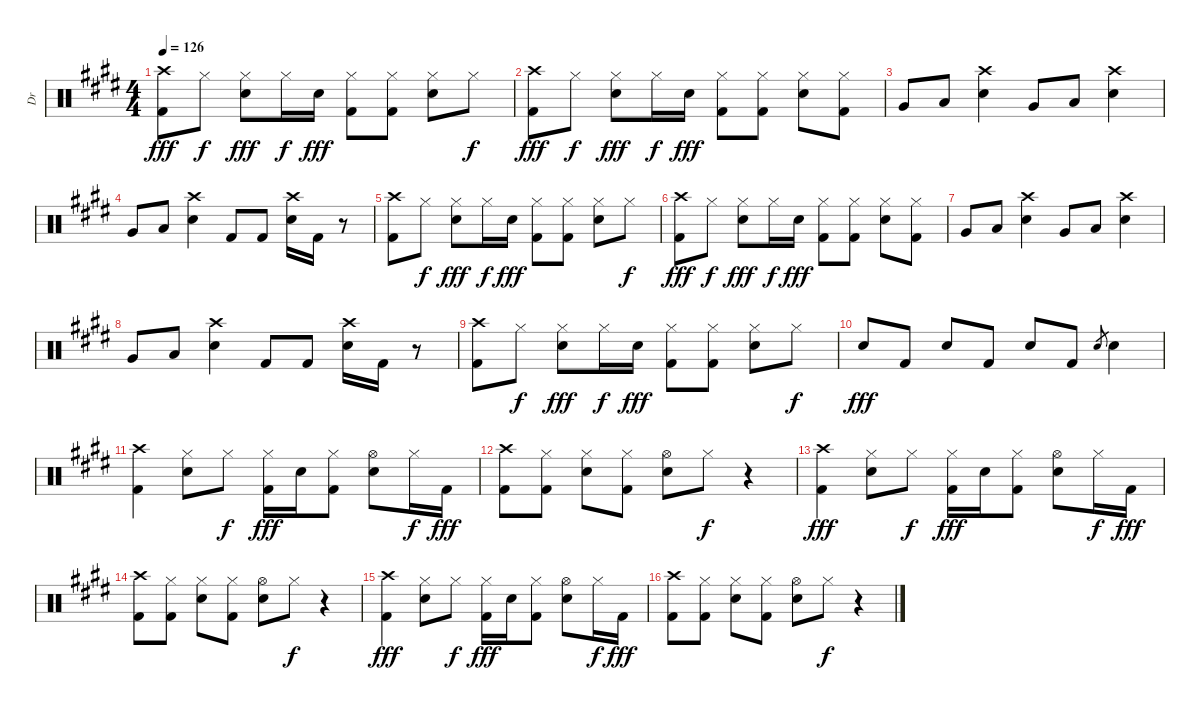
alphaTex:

\track ("Dr" "Dr") {instrument percussion}
\staff {score}
\articulation defaults
\ts (4 4)
\tempo 126
\clef neutral
\ks e
("Crash high (hit)" "Kick (hit) 2").8{dy fff} "Hi-Hat (closed)".8{dy f} ("Hi-Hat (closed)" "Electric Snare (hit)").8{dy fff} "Hi-Hat (closed)".16{dy f} "Electric Snare (hit)".16{dy fff} ("Hi-Hat (closed)" "Kick (hit) 2").8 ("Hi-Hat (closed)" "Kick (hit) 2").8 ("Hi-Hat (closed)" "Electric Snare (hit)").8 "Hi-Hat (closed)".8{dy f} |
("Crash high (hit)" "Kick (hit) 2").8{dy fff} "Hi-Hat (closed)".8{dy f} ("Hi-Hat (closed)" "Electric Snare (hit)").8{dy fff} "Hi-Hat (closed)".16{dy f} "Electric Snare (hit)".16{dy fff} ("Hi-Hat (closed)" "Kick (hit) 2").8 ("Hi-Hat (closed)" "Kick (hit) 2").8 ("Hi-Hat (closed)" "Electric Snare (hit)").8 ("Hi-Hat (closed)" "Kick (hit) 2").8 |
"Very Low Tom (hit)".8 "Low Floor Tom (hit)".8 ("Crash high (hit)" "Electric Snare (hit)").4 "Very Low Tom (hit)".8 "Low Floor Tom (hit)".8 ("Crash high (hit)" "Electric Snare (hit)").4 |
"Very Low Tom (hit)".8 "Low Floor Tom (hit)".8 ("Crash high (hit)" "Electric Snare (hit)").4 "Kick (hit) 2".8 "Kick (hit) 2".8 ("Crash high (hit)" "Electric Snare (hit)").16 "Kick (hit) 2".16 r.8 |
("Crash high (hit)" "Kick (hit) 2").8 "Hi-Hat (closed)".8{dy f} ("Hi-Hat (closed)" "Electric Snare (hit)").8{dy fff} "Hi-Hat (closed)".16{dy f} "Electric Snare (hit)".16{dy fff} ("Hi-Hat (closed)" "Kick (hit) 2").8 ("Hi-Hat (closed)" "Kick (hit) 2").8 ("Hi-Hat (closed)" "Electric Snare (hit)").8 "Hi-Hat (closed)".8{dy f} |
("Crash high (hit)" "Kick (hit) 2").8{dy fff} "Hi-Hat (closed)".8{dy f} ("Hi-Hat (closed)" "Electric Snare (hit)").8{dy fff} "Hi-Hat (closed)".16{dy f} "Electric Snare (hit)".16{dy fff} ("Hi-Hat (closed)" "Kick (hit) 2").8 ("Hi-Hat (closed)" "Kick (hit) 2").8 ("Hi-Hat (closed)" "Electric Snare (hit)").8 ("Hi-Hat (closed)" "Kick (hit) 2").8 |
"Very Low Tom (hit)".8 "Low Floor Tom (hit)".8 ("Crash high (hit)" "Electric Snare (hit)").4 "Very Low Tom (hit)".8 "Low Floor Tom (hit)".8 ("Crash high (hit)" "Electric Snare (hit)").4 |
"Very Low Tom (hit)".8 "Low Floor Tom (hit)".8 ("Crash high (hit)" "Electric Snare (hit)").4 "Kick (hit) 2".8 "Kick (hit) 2".8 ("Crash high (hit)" "Electric Snare (hit)").16 "Kick (hit) 2".16 r.8 |
("Crash high (hit)" "Kick (hit) 2").8 "Hi-Hat (closed)".8{dy f} ("Hi-Hat (closed)" "Electric Snare (hit)").8{dy fff} "Hi-Hat (closed)".16{dy f} "Electric Snare (hit)".16{dy fff} ("Hi-Hat (closed)" "Kick (hit) 2").8 ("Hi-Hat (closed)" "Kick (hit) 2").8 ("Hi-Hat (closed)" "Electric Snare (hit)").8 "Hi-Hat (closed)".8{dy f} |
"Electric Snare (hit)".8{dy fff} "Kick (hit) 2".8 "Electric Snare (hit)".8 "Kick (hit) 2".8 "Electric Snare (hit)".8 "Kick (hit) 2".8 "Electric Snare (hit)".8{gr} "Electric Snare (hit)".4 |
("Crash high (hit)" "Kick (hit) 2").4 ("Hi-Hat (closed)" "Electric Snare (hit)").8 "Hi-Hat (closed)".8{dy f} ("Hi-Hat (closed)" "Kick (hit) 2").16{dy fff} "Electric Snare (hit)".16 ("Hi-Hat (closed)" "Kick (hit) 2").8 ("Hi-Hat (open)" "Electric Snare (hit)").8 "Hi-Hat (closed)".16{dy f} "Kick (hit) 2".16{dy fff} |
("Crash high (hit)" "Kick (hit) 2").8 ("Hi-Hat (closed)" "Kick (hit) 2").8 ("Hi-Hat (closed)" "Electric Snare (hit)").8 ("Hi-Hat (closed)" "Kick (hit) 2").8 ("Hi-Hat (open)" "Electric Snare (hit)").8 "Hi-Hat (closed)".8{dy f} r.4 |
("Crash high (hit)" "Kick (hit) 2").4{dy fff} ("Hi-Hat (closed)" "Electric Snare (hit)").8 "Hi-Hat (closed)".8{dy f} ("Hi-Hat (closed)" "Kick (hit) 2").16{dy fff} "Electric Snare (hit)".16 ("Hi-Hat (closed)" "Kick (hit) 2").8 ("Hi-Hat (open)" "Electric Snare (hit)").8 "Hi-Hat (closed)".16{dy f} "Kick (hit) 2".16{dy fff} |
("Crash high (hit)" "Kick (hit) 2").8 ("Hi-Hat (closed)" "Kick (hit) 2").8 ("Hi-Hat (closed)" "Electric Snare (hit)").8 ("Hi-Hat (closed)" "Kick (hit) 2").8 ("Hi-Hat (open)" "Electric Snare (hit)").8 "Hi-Hat (closed)".8{dy f} r.4 |
("Crash high (hit)" "Kick (hit) 2").4{dy fff} ("Hi-Hat (closed)" "Electric Snare (hit)").8 "Hi-Hat (closed)".8{dy f} ("Hi-Hat (closed)" "Kick (hit) 2").16{dy fff} "Electric Snare (hit)".16 ("Hi-Hat (closed)" "Kick (hit) 2").8 ("Hi-Hat (open)" "Electric Snare (hit)").8 "Hi-Hat (closed)".16{dy f} "Kick (hit) 2".16{dy fff} |
("Crash high (hit)" "Kick (hit) 2").8 ("Hi-Hat (closed)" "Kick (hit) 2").8 ("Hi-Hat (closed)" "Electric Snare (hit)").8 ("Hi-Hat (closed)" "Kick (hit) 2").8 ("Hi-Hat (open)" "Electric Snare (hit)").8 "Hi-Hat (closed)".8{dy f} r.4
